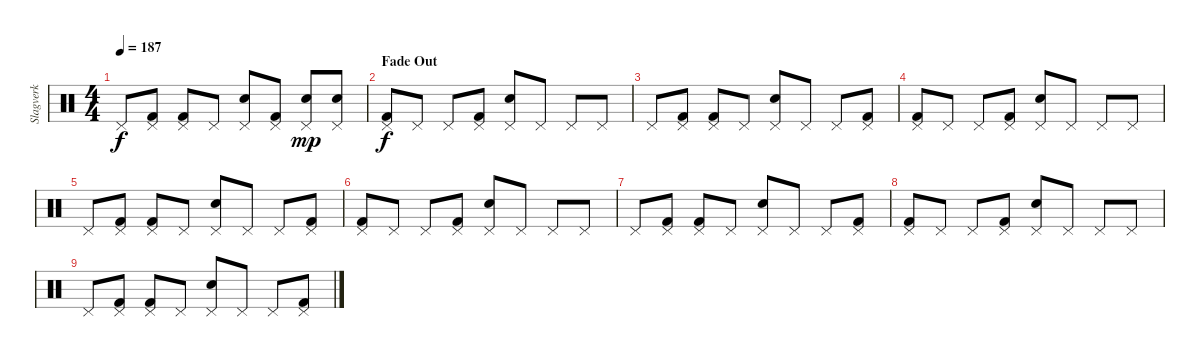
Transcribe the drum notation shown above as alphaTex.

\track ("Slagverk" "Slagverk") {instrument percussion}
\staff {score}
\articulation defaults
\ts (4 4)
\tempo 187
\clef neutral
\ks c "Pedal Hi-Hat (hit)".8{dy f}
("Pedal Hi-Hat (hit)" "Kick (hit) 2").8 ("Pedal Hi-Hat (hit)" "Kick (hit) 2").8 "Pedal Hi-Hat (hit)".8 ("Pedal Hi-Hat (hit)" "Electric Snare (hit)").8 ("Pedal Hi-Hat (hit)" "Kick (hit) 2").8 ("Pedal Hi-Hat (hit)" "Electric Snare (hit)").8{dy mp} ("Pedal Hi-Hat (hit)" "Electric Snare (hit)").8 |
\section ("" "Fade Out")
("Pedal Hi-Hat (hit)" "Kick (hit) 2").8{dy f} "Pedal Hi-Hat (hit)".8 "Pedal Hi-Hat (hit)".8 ("Pedal Hi-Hat (hit)" "Kick (hit) 2").8 ("Pedal Hi-Hat (hit)" "Electric Snare (hit)").8 "Pedal Hi-Hat (hit)".8 "Pedal Hi-Hat (hit)".8 "Pedal Hi-Hat (hit)".8 |
"Pedal Hi-Hat (hit)".8 ("Pedal Hi-Hat (hit)" "Kick (hit) 2").8 ("Pedal Hi-Hat (hit)" "Kick (hit) 2").8 "Pedal Hi-Hat (hit)".8 ("Pedal Hi-Hat (hit)" "Electric Snare (hit)").8 "Pedal Hi-Hat (hit)".8 "Pedal Hi-Hat (hit)".8 ("Pedal Hi-Hat (hit)" "Kick (hit) 2").8 |
("Pedal Hi-Hat (hit)" "Kick (hit) 2").8 "Pedal Hi-Hat (hit)".8 "Pedal Hi-Hat (hit)".8 ("Pedal Hi-Hat (hit)" "Kick (hit) 2").8 ("Pedal Hi-Hat (hit)" "Electric Snare (hit)").8 "Pedal Hi-Hat (hit)".8 "Pedal Hi-Hat (hit)".8 "Pedal Hi-Hat (hit)".8 |
"Pedal Hi-Hat (hit)".8 ("Pedal Hi-Hat (hit)" "Kick (hit) 2").8 ("Pedal Hi-Hat (hit)" "Kick (hit) 2").8 "Pedal Hi-Hat (hit)".8 ("Pedal Hi-Hat (hit)" "Electric Snare (hit)").8 "Pedal Hi-Hat (hit)".8 "Pedal Hi-Hat (hit)".8 ("Pedal Hi-Hat (hit)" "Kick (hit) 2").8 |
("Pedal Hi-Hat (hit)" "Kick (hit) 2").8 "Pedal Hi-Hat (hit)".8 "Pedal Hi-Hat (hit)".8 ("Pedal Hi-Hat (hit)" "Kick (hit) 2").8 ("Pedal Hi-Hat (hit)" "Electric Snare (hit)").8 "Pedal Hi-Hat (hit)".8 "Pedal Hi-Hat (hit)".8 "Pedal Hi-Hat (hit)".8 |
"Pedal Hi-Hat (hit)".8 ("Pedal Hi-Hat (hit)" "Kick (hit) 2").8 ("Pedal Hi-Hat (hit)" "Kick (hit) 2").8 "Pedal Hi-Hat (hit)".8 ("Pedal Hi-Hat (hit)" "Electric Snare (hit)").8 "Pedal Hi-Hat (hit)".8 "Pedal Hi-Hat (hit)".8 ("Pedal Hi-Hat (hit)" "Kick (hit) 2").8 |
("Pedal Hi-Hat (hit)" "Kick (hit) 2").8 "Pedal Hi-Hat (hit)".8 "Pedal Hi-Hat (hit)".8 ("Pedal Hi-Hat (hit)" "Kick (hit) 2").8 ("Pedal Hi-Hat (hit)" "Electric Snare (hit)").8 "Pedal Hi-Hat (hit)".8 "Pedal Hi-Hat (hit)".8 "Pedal Hi-Hat (hit)".8 |
"Pedal Hi-Hat (hit)".8 ("Pedal Hi-Hat (hit)" "Kick (hit) 2").8 ("Pedal Hi-Hat (hit)" "Kick (hit) 2").8 "Pedal Hi-Hat (hit)".8 ("Pedal Hi-Hat (hit)" "Electric Snare (hit)").8 "Pedal Hi-Hat (hit)".8 "Pedal Hi-Hat (hit)".8 ("Pedal Hi-Hat (hit)" "Kick (hit) 2").8
